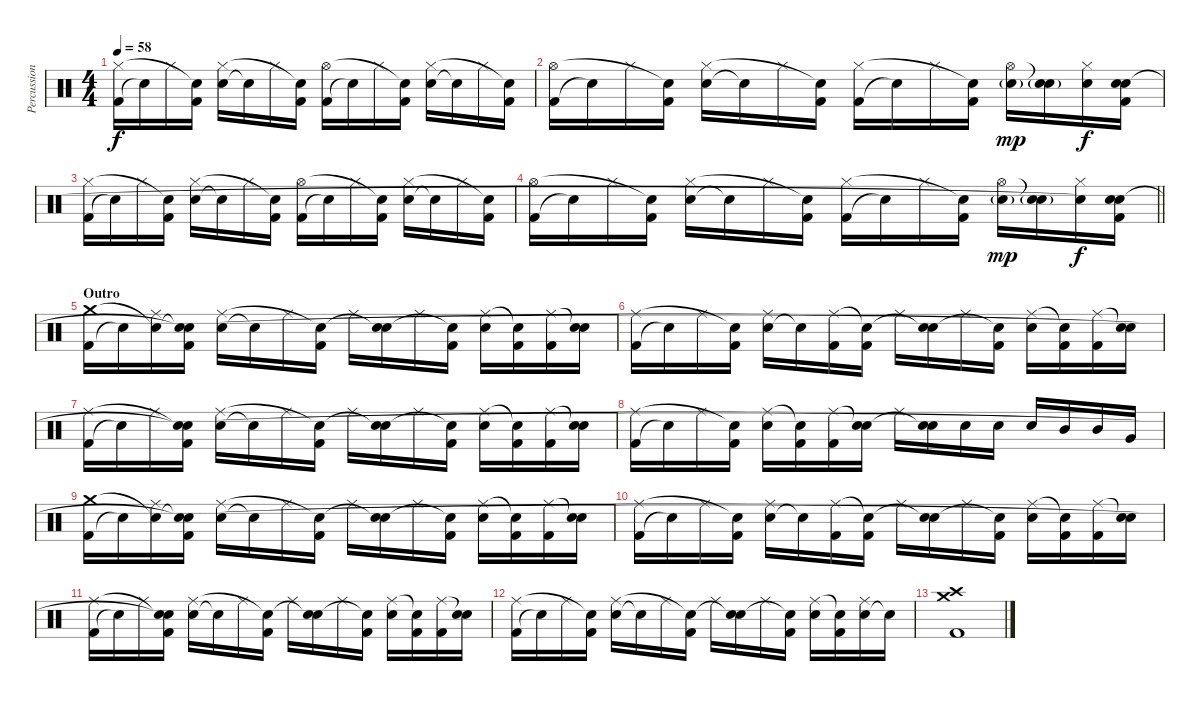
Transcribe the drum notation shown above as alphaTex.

\track ("Percussion" "Percussion") {instrument percussion}
\staff {score}
\articulation defaults
\ts (4 4)
\tempo 58
\clef neutral
\ks c
("Kick (hit) 2" "Hi-Hat (closed)").16{dy f} "Snare (hit)"{t}.16 "Hi-Hat (closed)".16 ("Kick (hit) 2" "Snare (hit)"{t}).16 ("Electric Snare (hit)" "Hi-Hat (closed)").16 "Snare (hit)"{t}.16 "Hi-Hat (closed)".16 ("Kick (hit) 2" "Snare (hit)"{t}).16 ("Kick (hit) 2" "Hi-Hat (open)").16 "Snare (hit)"{t}.16 "Hi-Hat (closed)".16 ("Kick (hit) 2" "Snare (hit)"{t}).16 ("Electric Snare (hit)" "Hi-Hat (closed)").16 "Snare (hit)"{t}.16 "Hi-Hat (closed)".16 ("Kick (hit) 2" "Snare (hit)"{t}).16 |
("Kick (hit) 2" "Hi-Hat (open)").16 "Snare (hit)"{t}.16 "Hi-Hat (closed)".16 ("Kick (hit) 2" "Snare (hit)"{t}).16 ("Electric Snare (hit)" "Hi-Hat (closed)").16 "Snare (hit)"{t}.16 "Hi-Hat (closed)".16 ("Kick (hit) 2" "Snare (hit)"{t}).16 ("Kick (hit) 2" "Hi-Hat (closed)").16 "Snare (hit)"{t}.16 "Hi-Hat (closed)".16 ("Kick (hit) 2" "Snare (hit)"{t}).16 ("Electric Snare (hit)"{g} "Hi-Hat (open)").16{dy mp} ("Electric Snare (hit)"{g} "Snare (hit)"{t}).16 ("Electric Snare (hit)" "Hi-Hat (closed)").16{dy f} ("Kick (hit) 2" "Electric Snare (hit)" "Snare (hit)"{t}).16 |
("Kick (hit) 2" "Hi-Hat (closed)").16 "Snare (hit)"{t}.16 "Hi-Hat (closed)".16 ("Kick (hit) 2" "Snare (hit)"{t}).16 ("Electric Snare (hit)" "Hi-Hat (closed)").16 "Snare (hit)"{t}.16 "Hi-Hat (closed)".16 ("Kick (hit) 2" "Snare (hit)"{t}).16 ("Kick (hit) 2" "Hi-Hat (open)").16 "Snare (hit)"{t}.16 "Hi-Hat (closed)".16 ("Kick (hit) 2" "Snare (hit)"{t}).16 ("Electric Snare (hit)" "Hi-Hat (closed)").16 "Snare (hit)"{t}.16 "Hi-Hat (closed)".16 ("Kick (hit) 2" "Snare (hit)"{t}).16 |
\barLineRight lightlight
("Kick (hit) 2" "Hi-Hat (open)").16 "Snare (hit)"{t}.16 "Hi-Hat (closed)".16 ("Kick (hit) 2" "Snare (hit)"{t}).16 ("Electric Snare (hit)" "Hi-Hat (closed)").16 "Snare (hit)"{t}.16 "Hi-Hat (closed)".16 ("Kick (hit) 2" "Snare (hit)"{t}).16 ("Kick (hit) 2" "Hi-Hat (closed)").16 "Snare (hit)"{t}.16 "Hi-Hat (closed)".16 ("Kick (hit) 2" "Snare (hit)"{t}).16 ("Electric Snare (hit)"{g} "Hi-Hat (open)").16{dy mp} ("Electric Snare (hit)"{g} "Snare (hit)"{t}).16 ("Electric Snare (hit)" "Hi-Hat (closed)").16{dy f} ("Kick (hit) 2" "Electric Snare (hit)" "Snare (hit)"{t}).16 |
\section ("" "Outro")
("Kick (hit) 2" "Crash medium (hit)").16 "Snare (hit)"{t}.16 ("Ride (middle)" "Snare (hit)"{t}).16 ("Kick (hit) 2" "Snare (hit)"{t} "Snare (hit)"{t}).16 ("Electric Snare (hit)" "Ride (middle)").16 "Snare (hit)"{t}.16 "Ride (middle)".16 ("Kick (hit) 2" "Snare (hit)"{t}).16 "Ride (middle)".16 ("Electric Snare (hit)" "Snare (hit)"{t}).16 "Ride (middle)".16 ("Kick (hit) 2" "Snare (hit)"{t}).16 ("Electric Snare (hit)" "Ride (middle)").16 ("Kick (hit) 2" "Snare (hit)"{t}).16 ("Kick (hit) 2" "Ride (middle)").16 ("Electric Snare (hit)" "Snare (hit)"{t}).16 |
("Kick (hit) 2" "Ride (middle)").16 "Snare (hit)"{t}.16 "Ride (middle)".16 ("Kick (hit) 2" "Snare (hit)"{t}).16 ("Electric Snare (hit)" "Ride (middle)").16 "Snare (hit)"{t}.16 ("Kick (hit) 2" "Ride (middle)").16 ("Kick (hit) 2" "Snare (hit)"{t}).16 "Ride (middle)".16 ("Electric Snare (hit)" "Snare (hit)"{t}).16 "Ride (middle)".16 ("Kick (hit) 2" "Snare (hit)"{t}).16 ("Electric Snare (hit)" "Ride (middle)").16 ("Kick (hit) 2" "Snare (hit)"{t}).16 ("Kick (hit) 2" "Ride (middle)").16 ("Electric Snare (hit)" "Snare (hit)"{t}).16 |
("Kick (hit) 2" "Ride (middle)").16 "Snare (hit)"{t}.16 "Ride (middle)".16 ("Kick (hit) 2" "Snare (hit)"{t} "Snare (hit)"{t}).16 ("Electric Snare (hit)" "Ride (middle)").16 "Snare (hit)"{t}.16 "Ride (middle)".16 ("Kick (hit) 2" "Snare (hit)"{t}).16 "Ride (middle)".16 ("Electric Snare (hit)" "Snare (hit)"{t}).16 "Ride (middle)".16 ("Kick (hit) 2" "Snare (hit)"{t}).16 ("Electric Snare (hit)" "Ride (middle)").16 ("Kick (hit) 2" "Snare (hit)"{t}).16 ("Kick (hit) 2" "Ride (middle)").16 ("Electric Snare (hit)" "Snare (hit)"{t}).16 |
("Kick (hit) 2" "Ride (middle)").16 "Snare (hit)"{t}.16 "Ride (middle)".16 ("Kick (hit) 2" "Snare (hit)"{t}).16 ("Electric Snare (hit)" "Ride (middle)").16 ("Kick (hit) 2" "Snare (hit)"{t}).16 ("Kick (hit) 2" "Ride (middle)").16 ("Electric Snare (hit)" "Snare (hit)"{t}).16 "Ride (middle)".16 ("Electric Snare (hit)" "Snare (hit)"{t}).16 "Electric Snare (hit)".16 "Electric Snare (hit)".16 "Electric Snare (hit)".16 "Mid Tom (hit)".16 "Mid Tom (hit)".16 "Very Low Tom (hit)".16 |
("Kick (hit) 2" "Crash medium (hit)").16 "Snare (hit)"{t}.16 ("Ride (middle)" "Snare (hit)"{t}).16 ("Kick (hit) 2" "Snare (hit)"{t} "Snare (hit)"{t}).16 ("Electric Snare (hit)" "Ride (middle)").16 "Snare (hit)"{t}.16 "Ride (middle)".16 ("Kick (hit) 2" "Snare (hit)"{t}).16 "Ride (middle)".16 ("Electric Snare (hit)" "Snare (hit)"{t}).16 "Ride (middle)".16 ("Kick (hit) 2" "Snare (hit)"{t}).16 ("Electric Snare (hit)" "Ride (middle)").16 ("Kick (hit) 2" "Snare (hit)"{t}).16 ("Kick (hit) 2" "Ride (middle)").16 ("Electric Snare (hit)" "Snare (hit)"{t}).16 |
("Kick (hit) 2" "Ride (middle)").16 "Snare (hit)"{t}.16 "Ride (middle)".16 ("Kick (hit) 2" "Snare (hit)"{t}).16 ("Electric Snare (hit)" "Ride (middle)").16 "Snare (hit)"{t}.16 ("Kick (hit) 2" "Ride (middle)").16 ("Kick (hit) 2" "Snare (hit)"{t}).16 "Ride (middle)".16 ("Electric Snare (hit)" "Snare (hit)"{t}).16 "Ride (middle)".16 ("Kick (hit) 2" "Snare (hit)"{t}).16 ("Electric Snare (hit)" "Ride (middle)").16 ("Kick (hit) 2" "Snare (hit)"{t}).16 ("Kick (hit) 2" "Ride (middle)").16 ("Electric Snare (hit)" "Snare (hit)"{t}).16 |
("Kick (hit) 2" "Ride (middle)").16 "Snare (hit)"{t}.16 "Ride (middle)".16 ("Kick (hit) 2" "Snare (hit)"{t} "Snare (hit)"{t}).16 ("Electric Snare (hit)" "Ride (middle)").16 "Snare (hit)"{t}.16 "Ride (middle)".16 ("Kick (hit) 2" "Snare (hit)"{t}).16 "Ride (middle)".16 ("Electric Snare (hit)" "Snare (hit)"{t}).16 "Ride (middle)".16 ("Kick (hit) 2" "Snare (hit)"{t}).16 ("Electric Snare (hit)" "Ride (middle)").16 ("Kick (hit) 2" "Snare (hit)"{t}).16 ("Kick (hit) 2" "Ride (middle)").16 ("Electric Snare (hit)" "Snare (hit)"{t}).16 |
("Kick (hit) 2" "Ride (middle)").16 "Snare (hit)"{t}.16 "Ride (middle)".16 ("Kick (hit) 2" "Snare (hit)"{t}).16 ("Electric Snare (hit)" "Ride (middle)").16 "Snare (hit)"{t}.16 "Ride (middle)".16 ("Kick (hit) 2" "Snare (hit)"{t}).16 "Ride (middle)".16 ("Electric Snare (hit)" "Snare (hit)"{t}).16 "Ride (middle)".16 ("Kick (hit) 2" "Snare (hit)"{t}).16 ("Electric Snare (hit)" "Ride (middle)").16 ("Kick (hit) 2" "Snare (hit)"{t}).16 ("Electric Snare (hit)" "Ride (middle)").16 "Snare (hit)"{t}.16 |
("Kick (hit) 2" "Crash high (hit)" "Crash medium (hit)").1
